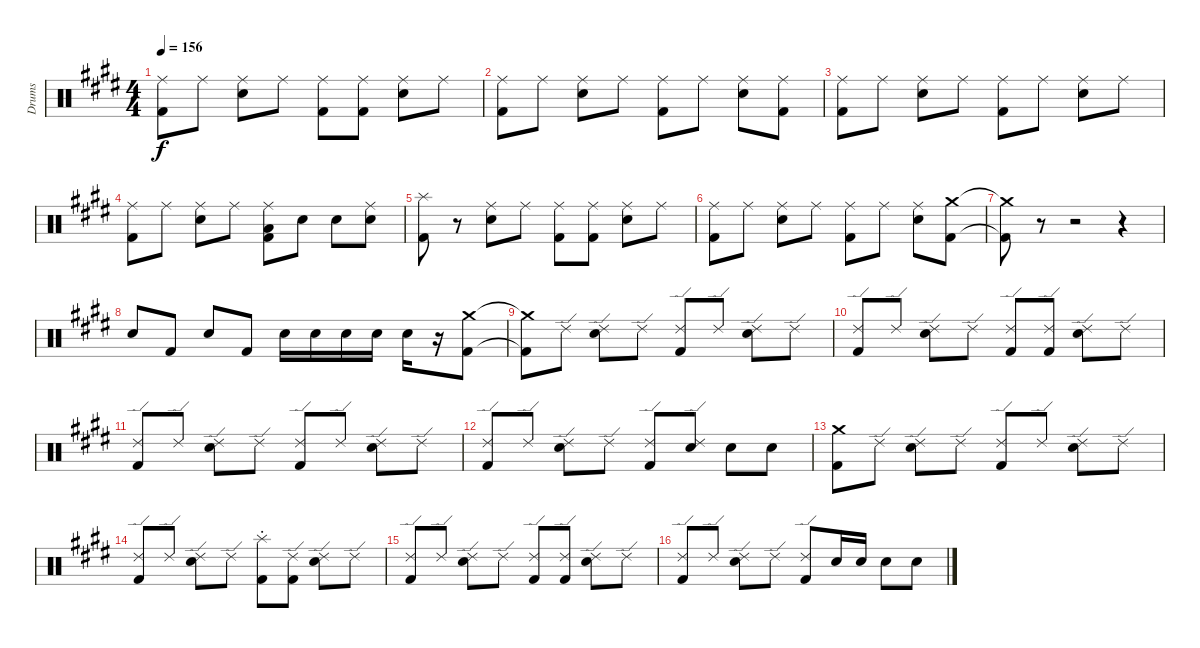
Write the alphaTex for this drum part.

\track ("Drums" "Drums") {instrument percussion}
\staff {score}
\articulation defaults
\ts (4 4)
\tempo 156
\clef neutral
\ks c#minor
("Ride (middle)" "Kick (hit) 2").8{dy f} "Ride (middle)".8 ("Ride (middle)" "Electric Snare (hit)").8 "Ride (middle)".8 ("Ride (middle)" "Kick (hit) 2").8 ("Ride (middle)" "Kick (hit) 2").8 ("Ride (middle)" "Electric Snare (hit)").8 "Ride (middle)".8 |
\ks e
("Ride (middle)" "Kick (hit) 2").8 "Ride (middle)".8 ("Ride (middle)" "Electric Snare (hit)").8 "Ride (middle)".8 ("Ride (middle)" "Kick (hit) 2").8 "Ride (middle)".8 ("Ride (middle)" "Electric Snare (hit)").8 ("Ride (middle)" "Kick (hit) 2").8 |
\ks c#minor
("Ride (middle)" "Kick (hit) 2").8 "Ride (middle)".8 ("Ride (middle)" "Electric Snare (hit)").8 "Ride (middle)".8 ("Ride (middle)" "Kick (hit) 2").8 "Ride (middle)".8 ("Ride (middle)" "Electric Snare (hit)").8 "Ride (middle)".8 |
("Ride (middle)" "Kick (hit) 2").8 "Ride (middle)".8 ("Ride (middle)" "Electric Snare (hit)").8 "Ride (middle)".8 ("Ride (middle)" "Low Tom (hit)" "Kick (hit) 2").8 "Electric Snare (hit)".8 "Electric Snare (hit)".8 ("Ride (middle)" "Electric Snare (hit)").8 |
("Splash (hit)" "Kick (hit) 2").8 r.8 ("Ride (middle)" "Electric Snare (hit)").8 "Ride (middle)".8 ("Ride (middle)" "Kick (hit) 2").8 ("Ride (middle)" "Kick (hit) 2").8 ("Ride (middle)" "Electric Snare (hit)").8 "Ride (middle)".8 |
\ks e
("Ride (middle)" "Kick (hit) 2").8 "Ride (middle)".8 ("Ride (middle)" "Electric Snare (hit)").8 "Ride (middle)".8 ("Ride (middle)" "Kick (hit) 2").8 "Ride (middle)".8 ("Ride (middle)" "Electric Snare (hit)").8 ("Crash medium (hit)" "Kick (hit) 2").8 |
\ks c#minor
("Crash medium (hit)"{t} "Kick (hit) 2"{t}).8 r.8 r.2 r.4 |
"Electric Snare (hit)".8 "Kick (hit) 2".8 "Electric Snare (hit)".8 "Kick (hit) 2".8 "Electric Snare (hit)".16 "Electric Snare (hit)".16 "Electric Snare (hit)".16 "Electric Snare (hit)".16 "Electric Snare (hit)".16 r.16 ("Crash medium (hit)" "Kick (hit) 2").8 |
("Crash medium (hit)"{t} "Kick (hit) 2"{t}).8 "Ride (edge) 2".8 ("Ride (edge) 2" "Electric Snare (hit)").8 "Ride (edge) 2".8 ("Ride (edge) 2" "Kick (hit) 2").8 "Ride (edge) 2".8 ("Ride (edge) 2" "Electric Snare (hit)").8 "Ride (edge) 2".8 |
\ks e
("Ride (edge) 2" "Kick (hit) 2").8 "Ride (edge) 2".8 ("Ride (edge) 2" "Electric Snare (hit)").8 "Ride (edge) 2".8 ("Ride (edge) 2" "Kick (hit) 2").8 ("Ride (edge) 2" "Kick (hit) 2").8 ("Ride (edge) 2" "Electric Snare (hit)").8 "Ride (edge) 2".8 |
\ks c#minor
("Ride (edge) 2" "Kick (hit) 2").8 "Ride (edge) 2".8 ("Ride (edge) 2" "Electric Snare (hit)").8 "Ride (edge) 2".8 ("Ride (edge) 2" "Kick (hit) 2").8 "Ride (edge) 2".8 ("Ride (edge) 2" "Electric Snare (hit)").8 "Ride (edge) 2".8 |
("Ride (edge) 2" "Kick (hit) 2").8 "Ride (edge) 2".8 ("Ride (edge) 2" "Electric Snare (hit)").8 "Ride (edge) 2".8 ("Ride (edge) 2" "Kick (hit) 2").8 ("Ride (edge) 2" "Electric Snare (hit)").8 "Electric Snare (hit)".8 "Electric Snare (hit)".8 |
("Crash medium (hit)" "Kick (hit) 2").8 "Ride (edge) 2".8 ("Ride (edge) 2" "Electric Snare (hit)").8 "Ride (edge) 2".8 ("Ride (edge) 2" "Kick (hit) 2").8 "Ride (edge) 2".8 ("Ride (edge) 2" "Electric Snare (hit)").8 "Ride (edge) 2".8 |
\ks e
("Ride (edge) 2" "Kick (hit) 2").8 "Ride (edge) 2".8 ("Ride (edge) 2" "Electric Snare (hit)").8 "Ride (edge) 2".8 ("Splash (choke)" "Kick (hit) 2").8 ("Ride (edge) 2" "Kick (hit) 2").8 ("Ride (edge) 2" "Electric Snare (hit)").8 "Ride (edge) 2".8 |
\ks c#minor
("Ride (edge) 2" "Kick (hit) 2").8 "Ride (edge) 2".8 ("Ride (edge) 2" "Electric Snare (hit)").8 "Ride (edge) 2".8 ("Ride (edge) 2" "Kick (hit) 2").8 ("Ride (edge) 2" "Kick (hit) 2").8 ("Ride (edge) 2" "Electric Snare (hit)").8 "Ride (edge) 2".8 |
("Ride (edge) 2" "Kick (hit) 2").8 "Ride (edge) 2".8 ("Ride (edge) 2" "Electric Snare (hit)").8 "Ride (edge) 2".8 ("Ride (edge) 2" "Kick (hit) 2").8 "Electric Snare (hit)".16 "Electric Snare (hit)".16 "Electric Snare (hit)".8 "Electric Snare (hit)".8
